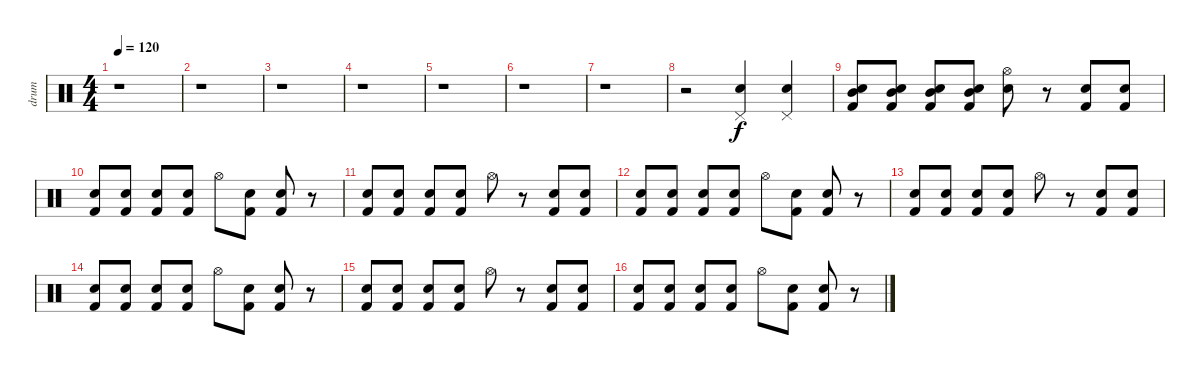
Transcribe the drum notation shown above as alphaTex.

\track ("drum" "drum") {instrument percussion}
\staff {score}
\articulation defaults
\ts (4 4)
\section ("" "")
\tempo 120
\clef neutral
\ks c
r.1{dy f} |
r.1 |
r.1 |
r.1 |
r.1 |
r.1 |
r.1 |
r.2 ("Pedal Hi-Hat (hit)" "Snare (hit) 2").4 ("Pedal Hi-Hat (hit)" "Snare (hit) 2").4 |
("Mid Tom (hit)" "Kick (hit) 2" "Snare (hit) 2").8 ("Mid Tom (hit)" "Kick (hit) 2" "Snare (hit) 2").8 ("Mid Tom (hit)" "Kick (hit) 2" "Snare (hit) 2").8 ("Mid Tom (hit)" "Kick (hit) 2" "Snare (hit) 2").8 ("Hi-Hat (open)" "Snare (hit) 2").8 r.8 ("Kick (hit) 2" "Snare (hit) 2").8 ("Kick (hit) 2" "Snare (hit) 2").8 |
("Kick (hit) 2" "Snare (hit) 2").8 ("Kick (hit) 2" "Snare (hit) 2").8 ("Kick (hit) 2" "Snare (hit) 2").8 ("Kick (hit) 2" "Snare (hit) 2").8 "Hi-Hat (open)".8 ("Kick (hit) 2" "Snare (hit) 2").8 ("Kick (hit) 2" "Snare (hit) 2").8 r.8 |
("Kick (hit) 2" "Snare (hit) 2").8 ("Kick (hit) 2" "Snare (hit) 2").8 ("Kick (hit) 2" "Snare (hit) 2").8 ("Kick (hit) 2" "Snare (hit) 2").8 "Hi-Hat (open)".8 r.8 ("Kick (hit) 2" "Snare (hit) 2").8 ("Kick (hit) 2" "Snare (hit) 2").8 |
("Kick (hit) 2" "Snare (hit) 2").8 ("Kick (hit) 2" "Snare (hit) 2").8 ("Kick (hit) 2" "Snare (hit) 2").8 ("Kick (hit) 2" "Snare (hit) 2").8 "Hi-Hat (open)".8 ("Kick (hit) 2" "Snare (hit) 2").8 ("Kick (hit) 2" "Snare (hit) 2").8 r.8 |
("Kick (hit) 2" "Snare (hit) 2").8 ("Kick (hit) 2" "Snare (hit) 2").8 ("Kick (hit) 2" "Snare (hit) 2").8 ("Kick (hit) 2" "Snare (hit) 2").8 "Hi-Hat (open)".8 r.8 ("Kick (hit) 2" "Snare (hit) 2").8 ("Kick (hit) 2" "Snare (hit) 2").8 |
("Kick (hit) 2" "Snare (hit) 2").8 ("Kick (hit) 2" "Snare (hit) 2").8 ("Kick (hit) 2" "Snare (hit) 2").8 ("Kick (hit) 2" "Snare (hit) 2").8 "Hi-Hat (open)".8 ("Kick (hit) 2" "Snare (hit) 2").8 ("Kick (hit) 2" "Snare (hit) 2").8 r.8 |
("Kick (hit) 2" "Snare (hit) 2").8 ("Kick (hit) 2" "Snare (hit) 2").8 ("Kick (hit) 2" "Snare (hit) 2").8 ("Kick (hit) 2" "Snare (hit) 2").8 "Hi-Hat (open)".8 r.8 ("Kick (hit) 2" "Snare (hit) 2").8 ("Kick (hit) 2" "Snare (hit) 2").8 |
("Kick (hit) 2" "Snare (hit) 2").8 ("Kick (hit) 2" "Snare (hit) 2").8 ("Kick (hit) 2" "Snare (hit) 2").8 ("Kick (hit) 2" "Snare (hit) 2").8 "Hi-Hat (open)".8 ("Kick (hit) 2" "Snare (hit) 2").8 ("Kick (hit) 2" "Snare (hit) 2").8 r.8
